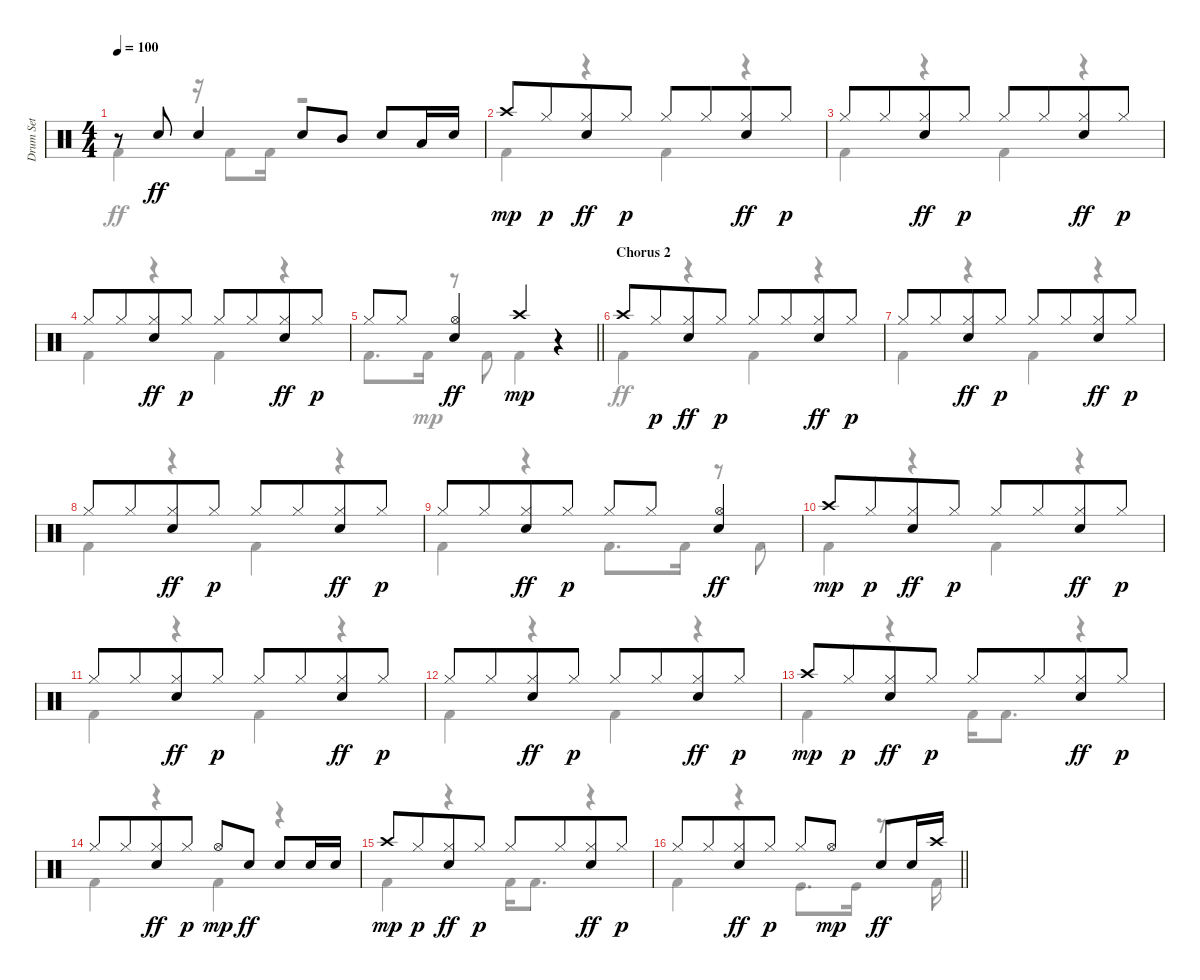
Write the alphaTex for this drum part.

\track ("Drum Set" "Drum Set") {instrument percussion}
\staff {score}
\articulation defaults
\voice
\ts (4 4)
\tempo 100
\clef neutral
\ks c
r.8{dy pp} "Electric Snare (hit)".8{dy ff} "Electric Snare (hit)".4 "Electric Snare (hit)".8 "Mid Tom (hit)".8 "Electric Snare (hit)".8 "Low Tom (hit)".16 "Electric Snare (hit)".16 |
"Crash high (hit)".8{dy mp} "Hi-Hat (closed)".8{dy p beam merge} ("Hi-Hat (closed)" "Electric Snare (hit)").8{dy ff} "Hi-Hat (closed)".8{dy p} "Hi-Hat (closed)".8 "Hi-Hat (closed)".8{beam merge} ("Hi-Hat (closed)" "Electric Snare (hit)").8{dy ff} "Hi-Hat (closed)".8{dy p} |
"Hi-Hat (closed)".8 "Hi-Hat (closed)".8{beam merge} ("Hi-Hat (closed)" "Electric Snare (hit)").8{dy ff} "Hi-Hat (closed)".8{dy p} "Hi-Hat (closed)".8 "Hi-Hat (closed)".8{beam merge} ("Hi-Hat (closed)" "Electric Snare (hit)").8{dy ff} "Hi-Hat (closed)".8{dy p} |
"Hi-Hat (closed)".8 "Hi-Hat (closed)".8{beam merge} ("Hi-Hat (closed)" "Electric Snare (hit)").8{dy ff} "Hi-Hat (closed)".8{dy p} "Hi-Hat (closed)".8 "Hi-Hat (closed)".8{beam merge} ("Hi-Hat (closed)" "Electric Snare (hit)").8{dy ff} "Hi-Hat (closed)".8{dy p} |
\barLineRight lightlight "Hi-Hat (closed)".8 "Hi-Hat (closed)".8{beam merge}
("Hi-Hat (open)" "Electric Snare (hit)").4{dy ff} "Crash high (hit)".4{dy mp} r.4 |
\section ("" "Chorus 2")
"Crash high (hit)".8 "Hi-Hat (closed)".8{dy p beam merge} ("Hi-Hat (closed)" "Electric Snare (hit)").8{dy ff} "Hi-Hat (closed)".8{dy p} "Hi-Hat (closed)".8 "Hi-Hat (closed)".8{beam merge} ("Hi-Hat (closed)" "Electric Snare (hit)").8{dy ff} "Hi-Hat (closed)".8{dy p} |
"Hi-Hat (closed)".8 "Hi-Hat (closed)".8{beam merge} ("Hi-Hat (closed)" "Electric Snare (hit)").8{dy ff} "Hi-Hat (closed)".8{dy p} "Hi-Hat (closed)".8 "Hi-Hat (closed)".8{beam merge} ("Hi-Hat (closed)" "Electric Snare (hit)").8{dy ff} "Hi-Hat (closed)".8{dy p} |
"Hi-Hat (closed)".8 "Hi-Hat (closed)".8{beam merge} ("Hi-Hat (closed)" "Electric Snare (hit)").8{dy ff} "Hi-Hat (closed)".8{dy p} "Hi-Hat (closed)".8 "Hi-Hat (closed)".8{beam merge} ("Hi-Hat (closed)" "Electric Snare (hit)").8{dy ff} "Hi-Hat (closed)".8{dy p} |
"Hi-Hat (closed)".8 "Hi-Hat (closed)".8{beam merge} ("Hi-Hat (closed)" "Electric Snare (hit)").8{dy ff} "Hi-Hat (closed)".8{dy p} "Hi-Hat (closed)".8 "Hi-Hat (closed)".8{beam merge} ("Hi-Hat (open)" "Electric Snare (hit)").4{dy ff} |
"Crash high (hit)".8{dy mp} "Hi-Hat (closed)".8{dy p beam merge} ("Hi-Hat (closed)" "Electric Snare (hit)").8{dy ff} "Hi-Hat (closed)".8{dy p} "Hi-Hat (closed)".8 "Hi-Hat (closed)".8{beam merge} ("Hi-Hat (closed)" "Electric Snare (hit)").8{dy ff} "Hi-Hat (closed)".8{dy p} |
"Hi-Hat (closed)".8 "Hi-Hat (closed)".8{beam merge} ("Hi-Hat (closed)" "Electric Snare (hit)").8{dy ff} "Hi-Hat (closed)".8{dy p} "Hi-Hat (closed)".8 "Hi-Hat (closed)".8{beam merge} ("Hi-Hat (closed)" "Electric Snare (hit)").8{dy ff} "Hi-Hat (closed)".8{dy p} |
"Hi-Hat (closed)".8 "Hi-Hat (closed)".8{beam merge} ("Hi-Hat (closed)" "Electric Snare (hit)").8{dy ff} "Hi-Hat (closed)".8{dy p} "Hi-Hat (closed)".8 "Hi-Hat (closed)".8{beam merge} ("Hi-Hat (closed)" "Electric Snare (hit)").8{dy ff} "Hi-Hat (closed)".8{dy p} |
"Crash high (hit)".8{dy mp} "Hi-Hat (closed)".8{dy p beam merge} ("Hi-Hat (closed)" "Electric Snare (hit)").8{dy ff} "Hi-Hat (closed)".8{dy p} "Hi-Hat (closed)".8 "Hi-Hat (closed)".8{beam merge} ("Hi-Hat (closed)" "Electric Snare (hit)").8{dy ff} "Hi-Hat (closed)".8{dy p} |
"Hi-Hat (closed)".8 "Hi-Hat (closed)".8{beam merge} ("Hi-Hat (closed)" "Electric Snare (hit)").8{dy ff} "Hi-Hat (closed)".8{dy p} "Hi-Hat (open)".8{dy mp} "Electric Snare (hit)".8{dy ff} "Electric Snare (hit)".8 "Electric Snare (hit)".16 "Electric Snare (hit)".16 |
"Crash high (hit)".8{dy mp} "Hi-Hat (closed)".8{dy p beam merge} ("Hi-Hat (closed)" "Electric Snare (hit)").8{dy ff} "Hi-Hat (closed)".8{dy p} "Hi-Hat (closed)".8 "Hi-Hat (closed)".8{beam merge} ("Hi-Hat (closed)" "Electric Snare (hit)").8{dy ff} "Hi-Hat (closed)".8{dy p} |
\barLineRight lightlight "Hi-Hat (closed)".8 "Hi-Hat (closed)".8{beam merge}
("Hi-Hat (closed)" "Electric Snare (hit)").8{dy ff} "Hi-Hat (closed)".8{dy p} "Hi-Hat (closed)".8 "Hi-Hat (open)".8{dy mp beam split} "Electric Snare (hit)".8{dy ff} "Electric Snare (hit)".16 "Crash high (hit)".16
\voice
\clef neutral
\ottava regular
\simile none
\ks c "Kick (hit) 2".4{dy ff}
r.16 "Kick (hit) 2".8 "Kick (hit) 2".16 r.2 |
"Kick (hit) 2".4 r.4 "Kick (hit) 2".4 r.4 |
"Kick (hit) 2".4 r.4 "Kick (hit) 2".4 r.4 |
"Kick (hit) 2".4 r.4 "Kick (hit) 2".4 r.4 |
\barLineRight lightlight "Kick (hit) 2".8{d} "Kick (hit) 2".16{dy mp}
r.8 "Kick (hit) 2".8 "Kick (hit) 2".4 r.4 |
"Kick (hit) 2".4{dy ff} r.4 "Kick (hit) 2".4 r.4 |
"Kick (hit) 2".4 r.4 "Kick (hit) 2".4 r.4 |
"Kick (hit) 2".4 r.4 "Kick (hit) 2".4 r.4 |
"Kick (hit) 2".4 r.4 "Kick (hit) 2".8{d} "Kick (hit) 2".16 r.8 "Kick (hit) 2".8 |
"Kick (hit) 2".4 r.4 "Kick (hit) 2".4 r.4 |
"Kick (hit) 2".4 r.4 "Kick (hit) 2".4 r.4 |
"Kick (hit) 2".4 r.4 "Kick (hit) 2".4 r.4 |
"Kick (hit) 2".4 r.4 "Kick (hit) 2".16 "Kick (hit) 2".8{d} r.4 |
"Kick (hit) 2".4 r.4 "Kick (hit) 2".4 r.4 |
"Kick (hit) 2".4 r.4 "Kick (hit) 2".16 "Kick (hit) 2".8{d} r.4 |
\barLineRight lightlight "Kick (hit) 2".4
r.4 "Kick (hit)".8{d} "Kick (hit)".16 r.8{d} "Kick (hit) 2".16
